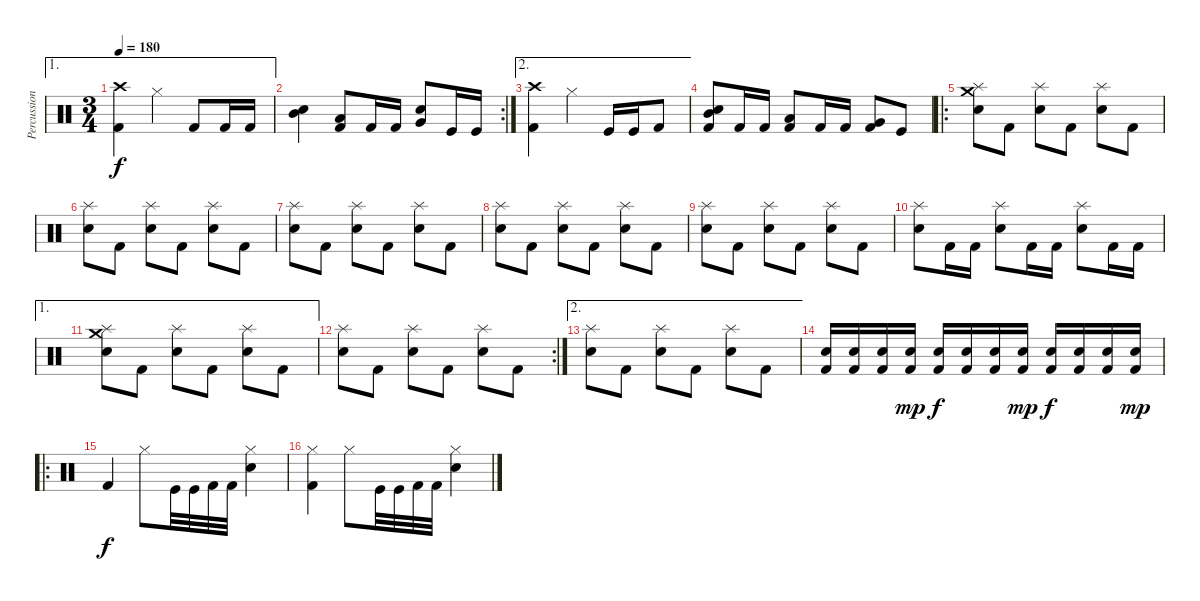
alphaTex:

\track ("Percussion" "Percussion") {instrument percussion}
\staff {score}
\articulation defaults
\ae 1
\ts (3 4)
\tempo 180
\clef neutral
\ks c
("Crash high (hit)" "Kick (hit) 2").4{dy f} "Hi-Hat (closed)".4 "Kick (hit) 2".8 "Kick (hit) 2".16 "Kick (hit) 2".16 |
\rc 2
("Mid Tom (hit)" "Snare (hit) 2").4 ("Low Tom (hit)" "Kick (hit) 2").8 "Kick (hit) 2".16 "Kick (hit) 2".16 ("Very Low Tom (hit)" "Snare (hit) 2").8 "Kick (hit)".16 "Kick (hit)".16 |
\ae 2
("Crash high (hit)" "Kick (hit) 2").4 "Hi-Hat (closed)".4 "Kick (hit)".16 "Kick (hit)".16 "Kick (hit) 2".8 |
("Snare (hit) 2" "Mid Tom (hit)" "Kick (hit) 2").8 "Kick (hit) 2".16 "Kick (hit) 2".16 ("Low Tom (hit)" "Kick (hit) 2").8 "Kick (hit) 2".16 "Kick (hit) 2".16 ("Very Low Tom (hit)" "Kick (hit) 2").8 "Kick (hit)".8 |
\ro
("Crash medium (hit)" "Splash (hit)" "Snare (hit) 2").8 "Kick (hit) 2".8 ("Splash (hit)" "Snare (hit) 2").8 "Kick (hit) 2".8 ("Splash (hit)" "Snare (hit) 2").8 "Kick (hit) 2".8 |
("Splash (hit)" "Snare (hit) 2").8 "Kick (hit) 2".8 ("Splash (hit)" "Snare (hit) 2").8 "Kick (hit) 2".8 ("Splash (hit)" "Snare (hit) 2").8 "Kick (hit) 2".8 |
("Splash (hit)" "Snare (hit) 2").8 "Kick (hit) 2".8 ("Splash (hit)" "Snare (hit) 2").8 "Kick (hit) 2".8 ("Splash (hit)" "Snare (hit) 2").8 "Kick (hit) 2".8 |
("Splash (hit)" "Snare (hit) 2").8 "Kick (hit) 2".8 ("Splash (hit)" "Snare (hit) 2").8 "Kick (hit) 2".8 ("Splash (hit)" "Snare (hit) 2").8 "Kick (hit) 2".8 |
("Splash (hit)" "Snare (hit) 2").8 "Kick (hit) 2".8 ("Splash (hit)" "Snare (hit) 2").8 "Kick (hit) 2".8 ("Splash (hit)" "Snare (hit) 2").8 "Kick (hit) 2".8 |
("Splash (hit)" "Snare (hit) 2").8 "Kick (hit) 2".16 "Kick (hit) 2".16 ("Splash (hit)" "Snare (hit) 2").8 "Kick (hit) 2".16 "Kick (hit) 2".16 ("Splash (hit)" "Snare (hit) 2").8 "Kick (hit) 2".16 "Kick (hit) 2".16 |
\ae 1
("Crash medium (hit)" "Splash (hit)" "Snare (hit) 2").8 "Kick (hit) 2".8 ("Splash (hit)" "Snare (hit) 2").8 "Kick (hit) 2".8 ("Splash (hit)" "Snare (hit) 2").8 "Kick (hit) 2".8 |
\rc 2
("Splash (hit)" "Snare (hit) 2").8 "Kick (hit) 2".8 ("Splash (hit)" "Snare (hit) 2").8 "Kick (hit) 2".8 ("Splash (hit)" "Snare (hit) 2").8 "Kick (hit) 2".8 |
\ae 2
("Splash (hit)" "Snare (hit) 2").8 "Kick (hit) 2".8 ("Splash (hit)" "Snare (hit) 2").8 "Kick (hit) 2".8 ("Splash (hit)" "Snare (hit) 2").8 "Kick (hit) 2".8 |
("Snare (hit) 2" "Kick (hit) 2").16 ("Snare (hit) 2" "Kick (hit) 2").16 ("Snare (hit) 2" "Kick (hit) 2").16 ("Snare (hit) 2" "Kick (hit) 2").16{dy mp} ("Snare (hit) 2" "Kick (hit) 2").16{dy f} ("Snare (hit) 2" "Kick (hit) 2").16 ("Snare (hit) 2" "Kick (hit) 2").16 ("Snare (hit) 2" "Kick (hit) 2").16{dy mp} ("Snare (hit) 2" "Kick (hit) 2").16{dy f} ("Snare (hit) 2" "Kick (hit) 2").16 ("Snare (hit) 2" "Kick (hit) 2").16 ("Snare (hit) 2" "Kick (hit) 2").16{dy mp} |
\ro "Kick (hit) 2".4{dy f} "Hi-Hat (closed)".8 "Kick (hit)".32 "Kick (hit)".32 "Kick (hit) 2".32 "Kick (hit) 2".32
("Hi-Hat (closed)" "Snare (hit) 2").4 |
("Hi-Hat (closed)" "Kick (hit) 2").4 "Hi-Hat (closed)".8 "Kick (hit)".32 "Kick (hit)".32 "Kick (hit) 2".32 "Kick (hit) 2".32 ("Hi-Hat (closed)" "Snare (hit) 2").4
